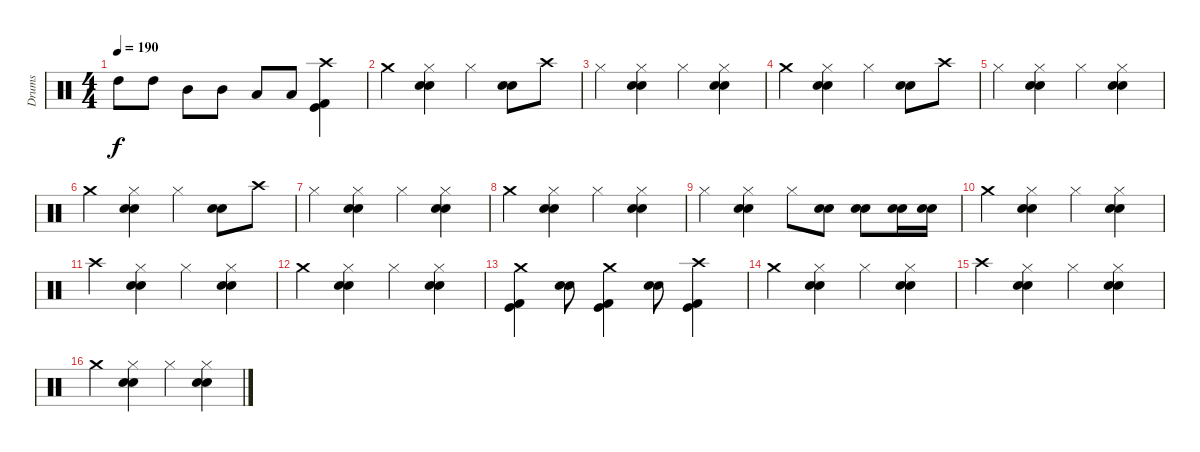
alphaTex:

\track ("Drums" "Drums") {instrument percussion}
\staff {score}
\articulation defaults
\ts (4 4)
\tempo 190
\clef neutral
\ks c "High Tom (hit)".8{dy f} "High Tom (hit)".8 "Mid Tom (hit)".8 "Mid Tom (hit)".8 "Low Tom (hit)".8 "Low Tom (hit)".8
("Crash high (hit)" "Kick (hit) 2" "Kick (hit)").4 |
"Crash medium (hit)".4 ("Hi-Hat (closed)" "Electric Snare (hit)" "Snare (hit) 2").4 "Hi-Hat (closed)".4 ("Electric Snare (hit)" "Snare (hit) 2").8 "Crash high (hit)".8 |
"Hi-Hat (closed)".4 ("Hi-Hat (closed)" "Electric Snare (hit)" "Snare (hit) 2").4 "Hi-Hat (closed)".4 ("Hi-Hat (closed)" "Electric Snare (hit)" "Snare (hit) 2").4 |
"Crash medium (hit)".4 ("Hi-Hat (closed)" "Electric Snare (hit)" "Snare (hit) 2").4 "Hi-Hat (closed)".4 ("Electric Snare (hit)" "Snare (hit) 2").8 "Crash high (hit)".8 |
"Hi-Hat (closed)".4 ("Hi-Hat (closed)" "Electric Snare (hit)" "Snare (hit) 2").4 "Hi-Hat (closed)".4 ("Hi-Hat (closed)" "Electric Snare (hit)" "Snare (hit) 2").4 |
"Crash medium (hit)".4 ("Hi-Hat (closed)" "Electric Snare (hit)" "Snare (hit) 2").4 "Hi-Hat (closed)".4 ("Electric Snare (hit)" "Snare (hit) 2").8 "Crash high (hit)".8 |
"Hi-Hat (closed)".4 ("Hi-Hat (closed)" "Electric Snare (hit)" "Snare (hit) 2").4 "Hi-Hat (closed)".4 ("Hi-Hat (closed)" "Electric Snare (hit)" "Snare (hit) 2").4 |
"Crash medium (hit)".4 ("Hi-Hat (closed)" "Electric Snare (hit)" "Snare (hit) 2").4 "Hi-Hat (closed)".4 ("Hi-Hat (closed)" "Electric Snare (hit)" "Snare (hit) 2").4 |
"Hi-Hat (closed)".4 ("Hi-Hat (closed)" "Electric Snare (hit)" "Snare (hit) 2").4 "Hi-Hat (closed)".8 ("Electric Snare (hit)" "Snare (hit) 2").8 ("Electric Snare (hit)" "Snare (hit) 2").8 ("Electric Snare (hit)" "Snare (hit) 2").16 ("Electric Snare (hit)" "Snare (hit) 2").16 |
"Crash medium (hit)".4 ("Hi-Hat (closed)" "Electric Snare (hit)" "Snare (hit) 2").4 "Hi-Hat (closed)".4 ("Hi-Hat (closed)" "Electric Snare (hit)" "Snare (hit) 2").4 |
"Crash high (hit)".4 ("Hi-Hat (closed)" "Electric Snare (hit)" "Snare (hit) 2").4 "Hi-Hat (closed)".4 ("Hi-Hat (closed)" "Electric Snare (hit)" "Snare (hit) 2").4 |
"Crash medium (hit)".4 ("Hi-Hat (closed)" "Electric Snare (hit)" "Snare (hit) 2").4 "Hi-Hat (closed)".4 ("Hi-Hat (closed)" "Electric Snare (hit)" "Snare (hit) 2").4 |
("Crash medium (hit)" "Kick (hit) 2" "Kick (hit)").4 ("Electric Snare (hit)" "Snare (hit) 2").8 ("Crash medium (hit)" "Kick (hit) 2" "Kick (hit)").4 ("Electric Snare (hit)" "Snare (hit) 2").8 ("Crash high (hit)" "Kick (hit) 2" "Kick (hit)").4 |
"Crash medium (hit)".4 ("Hi-Hat (closed)" "Electric Snare (hit)" "Snare (hit) 2").4 "Hi-Hat (closed)".4 ("Hi-Hat (closed)" "Electric Snare (hit)" "Snare (hit) 2").4 |
"Crash high (hit)".4 ("Hi-Hat (closed)" "Electric Snare (hit)" "Snare (hit) 2").4 "Hi-Hat (closed)".4 ("Hi-Hat (closed)" "Electric Snare (hit)" "Snare (hit) 2").4 |
"Crash medium (hit)".4 ("Hi-Hat (closed)" "Electric Snare (hit)" "Snare (hit) 2").4 "Hi-Hat (closed)".4 ("Hi-Hat (closed)" "Electric Snare (hit)" "Snare (hit) 2").4
